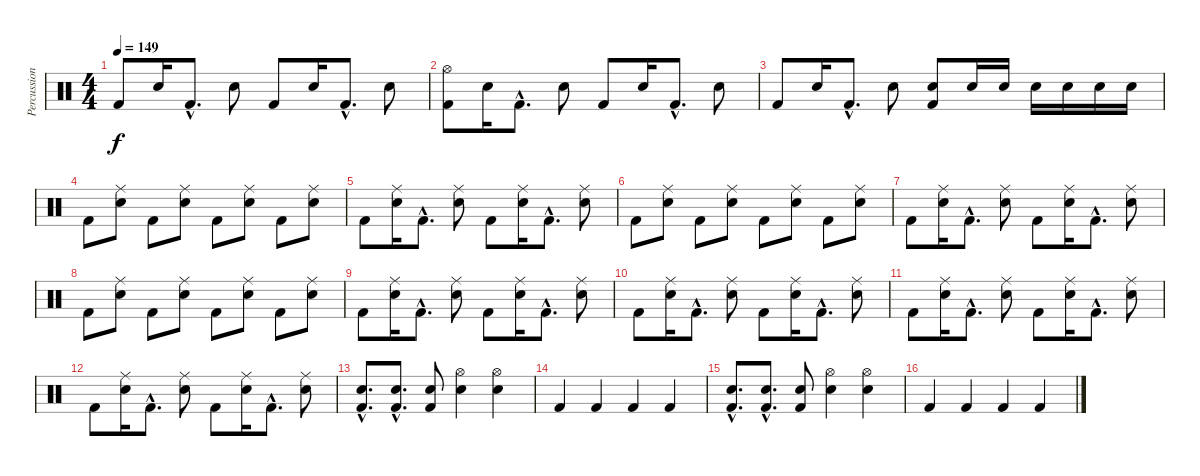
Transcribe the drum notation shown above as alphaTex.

\track ("Percussion" "Percussion") {instrument percussion}
\staff {score}
\articulation defaults
\ts (4 4)
\tempo 149
\clef neutral
\ks c "Kick (hit) 2".8{dy f} "Snare (hit) 2".16 "Kick (hit) 2"{hac}.8{d} "Snare (hit) 2".8 "Kick (hit) 2".8 "Snare (hit) 2".16 "Kick (hit) 2"{hac}.8{d} "Snare (hit) 2".8
|
("Hi-Hat (open)" "Kick (hit) 2").8 "Snare (hit) 2".16 "Kick (hit) 2"{hac}.8{d} "Snare (hit) 2".8 "Kick (hit) 2".8 "Snare (hit) 2".16 "Kick (hit) 2"{hac}.8{d} "Snare (hit) 2".8 |
"Kick (hit) 2".8 "Snare (hit) 2".16 "Kick (hit) 2"{hac}.8{d} "Snare (hit) 2".8 ("Snare (hit) 2" "Kick (hit) 2").8 "Snare (hit) 2".16 "Snare (hit) 2".16 "Snare (hit) 2".16 "Snare (hit) 2".16 "Snare (hit) 2".16 "Snare (hit) 2".16 |
"Kick (hit) 2".8 ("Snare (hit) 2" "Ride (middle)").8 "Kick (hit) 2".8 ("Snare (hit) 2" "Ride (middle)").8 "Kick (hit) 2".8 ("Snare (hit) 2" "Ride (middle)").8 "Kick (hit) 2".8 ("Snare (hit) 2" "Ride (middle)").8 |
"Kick (hit) 2".8 ("Snare (hit) 2" "Ride (middle)").16 "Kick (hit) 2"{hac}.8{d} ("Snare (hit) 2" "Ride (middle)").8 "Kick (hit) 2".8 ("Snare (hit) 2" "Ride (middle)").16 "Kick (hit) 2"{hac}.8{d} ("Snare (hit) 2" "Ride (middle)").8 |
"Kick (hit) 2".8 ("Snare (hit) 2" "Ride (middle)").8 "Kick (hit) 2".8 ("Snare (hit) 2" "Ride (middle)").8 "Kick (hit) 2".8 ("Snare (hit) 2" "Ride (middle)").8 "Kick (hit) 2".8 ("Snare (hit) 2" "Ride (middle)").8 |
"Kick (hit) 2".8 ("Snare (hit) 2" "Ride (middle)").16 "Kick (hit) 2"{hac}.8{d} ("Snare (hit) 2" "Ride (middle)").8 "Kick (hit) 2".8 ("Snare (hit) 2" "Ride (middle)").16 "Kick (hit) 2"{hac}.8{d} ("Snare (hit) 2" "Ride (middle)").8 |
"Kick (hit) 2".8 ("Snare (hit) 2" "Ride (middle)").8 "Kick (hit) 2".8 ("Snare (hit) 2" "Ride (middle)").8 "Kick (hit) 2".8 ("Snare (hit) 2" "Ride (middle)").8 "Kick (hit) 2".8 ("Snare (hit) 2" "Ride (middle)").8 |
"Kick (hit) 2".8 ("Snare (hit) 2" "Ride (middle)").16 "Kick (hit) 2"{hac}.8{d} ("Snare (hit) 2" "Ride (middle)").8 "Kick (hit) 2".8 ("Snare (hit) 2" "Ride (middle)").16 "Kick (hit) 2"{hac}.8{d} ("Snare (hit) 2" "Ride (middle)").8 |
"Kick (hit) 2".8 ("Snare (hit) 2" "Ride (middle)").16 "Kick (hit) 2"{hac}.8{d} ("Snare (hit) 2" "Ride (middle)").8 "Kick (hit) 2".8 ("Snare (hit) 2" "Ride (middle)").16 "Kick (hit) 2"{hac}.8{d} ("Snare (hit) 2" "Ride (middle)").8 |
"Kick (hit) 2".8 ("Snare (hit) 2" "Ride (middle)").16 "Kick (hit) 2"{hac}.8{d} ("Snare (hit) 2" "Ride (middle)").8 "Kick (hit) 2".8 ("Snare (hit) 2" "Ride (middle)").16 "Kick (hit) 2"{hac}.8{d} ("Snare (hit) 2" "Ride (middle)").8 |
"Kick (hit) 2".8 ("Snare (hit) 2" "Ride (middle)").16 "Kick (hit) 2"{hac}.8{d} ("Snare (hit) 2" "Ride (middle)").8 "Kick (hit) 2".8 ("Snare (hit) 2" "Ride (middle)").16 "Kick (hit) 2"{hac}.8{d} ("Snare (hit) 2" "Ride (middle)").8 |
("Snare (hit) 2"{hac} "Kick (hit) 2"{hac}).8{d} ("Snare (hit) 2"{hac} "Kick (hit) 2"{hac}).8{d} ("Snare (hit) 2" "Kick (hit) 2").8 ("Hi-Hat (open)" "Snare (hit) 2").4 ("Hi-Hat (open)" "Snare (hit) 2").4 |
"Kick (hit) 2".4 "Kick (hit) 2".4 "Kick (hit) 2".4 "Kick (hit) 2".4 |
("Snare (hit) 2"{hac} "Kick (hit) 2"{hac}).8{d} ("Snare (hit) 2"{hac} "Kick (hit) 2"{hac}).8{d} ("Snare (hit) 2" "Kick (hit) 2").8 ("Hi-Hat (open)" "Snare (hit) 2").4 ("Hi-Hat (open)" "Snare (hit) 2").4 |
"Kick (hit) 2".4 "Kick (hit) 2".4 "Kick (hit) 2".4 "Kick (hit) 2".4
